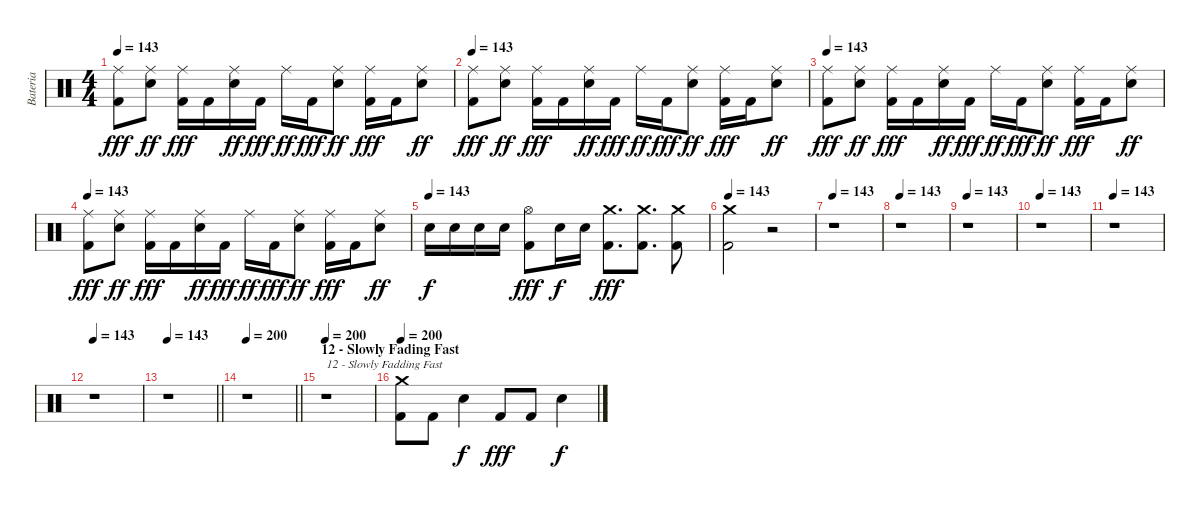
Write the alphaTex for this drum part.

\track ("Bateria" "Bateria") {instrument percussion}
\staff {score}
\articulation defaults
\ts (4 4)
\tempo 143
\clef neutral
\ks c
("Ride (middle)" "Kick (hit) 2").8{dy fff} ("Ride (middle)" "Electric Snare (hit)").8{dy ff} ("Ride (middle)" "Kick (hit) 2").16{dy fff} "Kick (hit) 2".16 ("Ride (middle)" "Electric Snare (hit)").16{dy ff} "Kick (hit) 2".16{dy fff} "Ride (middle)".16{dy ff} "Kick (hit) 2".16{dy fff} ("Ride (middle)" "Electric Snare (hit)").8{dy ff} ("Ride (middle)" "Kick (hit) 2").16{dy fff} "Kick (hit) 2".16 ("Ride (middle)" "Electric Snare (hit)").8{dy ff} |
\tempo 143
("Ride (middle)" "Kick (hit) 2").8{dy fff} ("Ride (middle)" "Electric Snare (hit)").8{dy ff} ("Ride (middle)" "Kick (hit) 2").16{dy fff} "Kick (hit) 2".16 ("Ride (middle)" "Electric Snare (hit)").16{dy ff} "Kick (hit) 2".16{dy fff} "Ride (middle)".16{dy ff} "Kick (hit) 2".16{dy fff} ("Ride (middle)" "Electric Snare (hit)").8{dy ff} ("Ride (middle)" "Kick (hit) 2").16{dy fff} "Kick (hit) 2".16 ("Ride (middle)" "Electric Snare (hit)").8{dy ff} |
\tempo 143
("Ride (middle)" "Kick (hit) 2").8{dy fff} ("Ride (middle)" "Electric Snare (hit)").8{dy ff} ("Ride (middle)" "Kick (hit) 2").16{dy fff} "Kick (hit) 2".16 ("Ride (middle)" "Electric Snare (hit)").16{dy ff} "Kick (hit) 2".16{dy fff} "Ride (middle)".16{dy ff} "Kick (hit) 2".16{dy fff} ("Ride (middle)" "Electric Snare (hit)").8{dy ff} ("Ride (middle)" "Kick (hit) 2").16{dy fff} "Kick (hit) 2".16 ("Ride (middle)" "Electric Snare (hit)").8{dy ff} |
\tempo 143
("Ride (middle)" "Kick (hit) 2").8{dy fff} ("Ride (middle)" "Electric Snare (hit)").8{dy ff} ("Ride (middle)" "Kick (hit) 2").16{dy fff} "Kick (hit) 2".16 ("Ride (middle)" "Electric Snare (hit)").16{dy ff} "Kick (hit) 2".16{dy fff} "Ride (middle)".16{dy ff} "Kick (hit) 2".16{dy fff} ("Ride (middle)" "Electric Snare (hit)").8{dy ff} ("Ride (middle)" "Kick (hit) 2").16{dy fff} "Kick (hit) 2".16 ("Ride (middle)" "Electric Snare (hit)").8{dy ff} |
\tempo (143)
"Electric Snare (hit)".16{dy f} "Electric Snare (hit)".16 "Electric Snare (hit)".16 "Electric Snare (hit)".16 ("Hi-Hat (open)" "Kick (hit) 2").8{dy fff} "Electric Snare (hit)".16{dy f} "Electric Snare (hit)".16 ("Crash medium (hit)" "Kick (hit) 2").8{d dy fff} ("Crash medium (hit)" "Kick (hit) 2").8{d} ("Crash medium (hit)" "Kick (hit) 2").8 |
\tempo 143
("Crash medium (hit)" "Kick (hit) 2").2 r.2 |
\tempo 143
r.1 |
\tempo 143
r.1 |
\tempo 143
r.1 |
\tempo 143
r.1 |
\tempo 143
r.1 |
\tempo 143
r.1 |
\tempo 143
\barLineRight lightlight
r.1 |
\tempo 200
\barLineRight lightlight
r.1 |
\section ("" "12 - Slowly Fading Fast")
\tempo 200
r.1{txt "12 - Slowly Fadding Fast"} |
\tempo 200
("Crash medium (hit)" "Kick (hit) 2").8 "Kick (hit) 2".8 "Electric Snare (hit)".4{dy f} "Kick (hit) 2".8{dy fff} "Kick (hit) 2".8 "Electric Snare (hit)".4{dy f}
